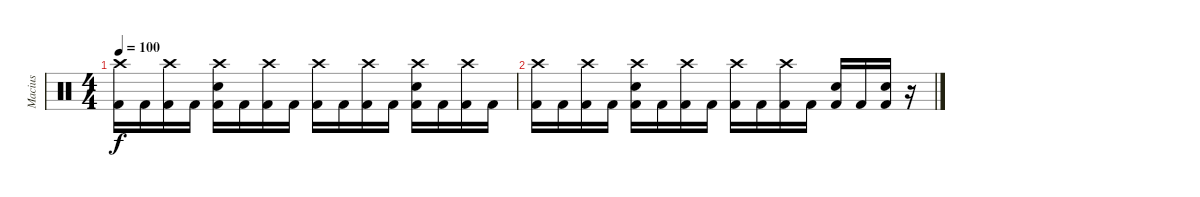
\track ("Macius" "Macius") {instrument percussion}
\staff {score}
\articulation defaults
\ts (4 4)
\tempo 100
\clef neutral
\ks c
("Crash high (hit)" "Kick (hit) 2").16{dy f} "Kick (hit) 2".16 ("Crash high (hit)" "Kick (hit) 2").16 "Kick (hit) 2".16 ("Crash high (hit)" "Electric Snare (hit)" "Kick (hit) 2").16 "Kick (hit) 2".16 ("Crash high (hit)" "Kick (hit) 2").16 "Kick (hit) 2".16 ("Crash high (hit)" "Kick (hit) 2").16 "Kick (hit) 2".16 ("Crash high (hit)" "Kick (hit) 2").16 "Kick (hit) 2".16 ("Crash high (hit)" "Electric Snare (hit)" "Kick (hit) 2").16 "Kick (hit) 2".16 ("Crash high (hit)" "Kick (hit) 2").16 "Kick (hit) 2".16 |
("Crash high (hit)" "Kick (hit) 2").16 "Kick (hit) 2".16 ("Crash high (hit)" "Kick (hit) 2").16 "Kick (hit) 2".16 ("Crash high (hit)" "Electric Snare (hit)" "Kick (hit) 2").16 "Kick (hit) 2".16 ("Crash high (hit)" "Kick (hit) 2").16 "Kick (hit) 2".16 ("Crash high (hit)" "Kick (hit) 2").16 "Kick (hit) 2".16 ("Crash high (hit)" "Kick (hit) 2").16 "Kick (hit) 2".16 ("Electric Snare (hit)" "Kick (hit) 2").16 "Kick (hit) 2".16 ("Electric Snare (hit)" "Kick (hit) 2").16 r.16
